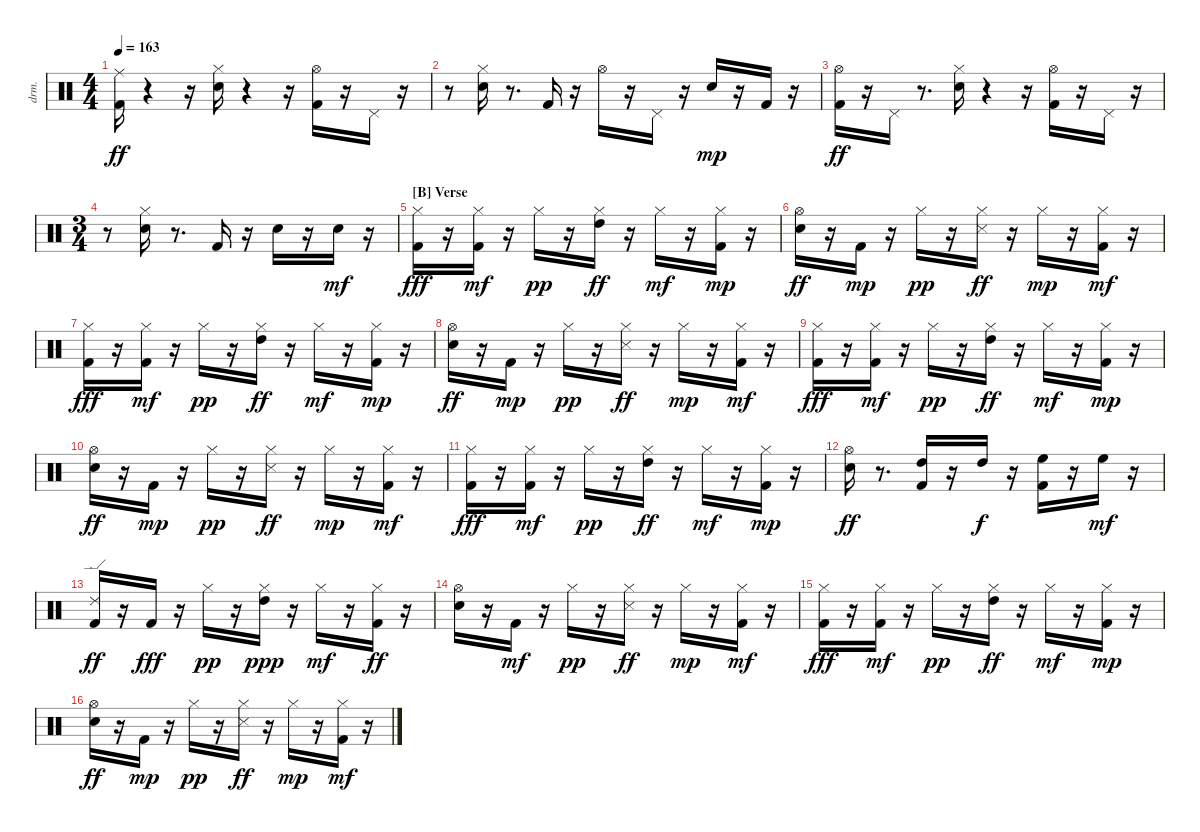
\bracketExtendMode nobrackets
\track ("EZdrummer 3" "drm.") {instrument percussion}
\staff {score}
\articulation defaults
\ts (4 4)
\tempo 163
\clef neutral
\ks aminor
("Kick (hit) 2" "Ride (middle)"{acc #}).16{dy ff beam Down} r.4{beam Down} r.16{beam Down} ("Snare (hit) 2" "Hi-Hat (closed)"{acc #}).16{beam Down} r.4{beam Down} r.16{beam Down} ("Kick (hit) 2" "Hi-Hat (open)"{acc #}).16{beam Down} r.16{beam Down} "Pedal Hi-Hat (hit)"{acc #}.16{beam Down} r.16{beam Down} |
r.8{beam Down} ("Snare (hit) 2" "Hi-Hat (closed)"{acc #}).16{beam Down} r.8{d beam Down} "Kick (hit) 2".16{beam Up} r.16{beam Down} "Hi-Hat (open)"{acc #}.16{beam Down} r.16{beam Down} "Pedal Hi-Hat (hit)"{acc #}.16{beam Down} r.16{beam Down} "Snare (hit) 2".16{dy mp beam Up} r.16{beam Up} "Kick (hit) 2".16{beam Up} r.16{beam Down} |
("Kick (hit) 2" "Hi-Hat (open)"{acc #}).16{dy ff beam Down} r.16{beam Down} "Pedal Hi-Hat (hit)"{acc #}.16{beam Down} r.8{d beam Down} ("Snare (hit) 2" "Hi-Hat (closed)"{acc #}).16{beam Down} r.4{beam Down} r.16{beam Down} ("Kick (hit) 2" "Hi-Hat (open)"{acc #}).16{beam Down} r.16{beam Down} "Pedal Hi-Hat (hit)"{acc #}.16{beam Down} r.16{beam Down} |
\ts (3 4)
r.8{beam Down} ("Snare (hit) 2" "Hi-Hat (closed)"{acc #}).16{beam Down} r.8{d beam Down} "Kick (hit) 2".16{beam Up} r.16{beam Down} "Snare (hit) 2".16{beam Down} r.16{beam Down} "Snare (hit) 2".16{dy mf beam Down} r.16{beam Down} |
\section ("B" "Verse")
("Kick (hit) 2" "Hi-Hat (closed)"{acc #}).16{dy fff beam Down} r.16{beam Down} ("Kick (hit) 2" "Hi-Hat (closed)"{acc #}).16{dy mf beam Down} r.16{beam Down} "Hi-Hat (closed)"{acc #}.16{dy pp beam Down} r.16{beam Down} ("Hi-Hat (closed)"{acc #} "High Tom (hit)").16{dy ff beam Down} r.16{beam Down} "Hi-Hat (closed)"{acc #}.16{dy mf beam Down} r.16{beam Down} ("Kick (hit) 2" "Hi-Hat (closed)"{acc #}).16{dy mp beam Down} r.16{beam Down} |
("Snare (hit) 2" "Hi-Hat (open)"{acc #}).16{dy ff beam Down} r.16{beam Down} "Kick (hit) 2".16{dy mp beam Down} r.16{beam Down} "Hi-Hat (closed)"{acc #}.16{dy pp beam Down} r.16{beam Down} ("Snare (side stick) 3"{acc #} "Hi-Hat (closed)"{acc #}).16{dy ff beam Down} r.16{beam Down} "Hi-Hat (closed)"{acc #}.16{dy mp beam Down} r.16{beam Down} ("Kick (hit) 2" "Hi-Hat (closed)"{acc #}).16{dy mf beam Down} r.16{beam Down} |
("Kick (hit) 2" "Hi-Hat (closed)"{acc #}).16{dy fff beam Down} r.16{beam Down} ("Kick (hit) 2" "Hi-Hat (closed)"{acc #}).16{dy mf beam Down} r.16{beam Down} "Hi-Hat (closed)"{acc #}.16{dy pp beam Down} r.16{beam Down} ("Hi-Hat (closed)"{acc #} "High Tom (hit)").16{dy ff beam Down} r.16{beam Down} "Hi-Hat (closed)"{acc #}.16{dy mf beam Down} r.16{beam Down} ("Kick (hit) 2" "Hi-Hat (closed)"{acc #}).16{dy mp beam Down} r.16{beam Down} |
("Snare (hit) 2" "Hi-Hat (open)"{acc #}).16{dy ff beam Down} r.16{beam Down} "Kick (hit) 2".16{dy mp beam Down} r.16{beam Down} "Hi-Hat (closed)"{acc #}.16{dy pp beam Down} r.16{beam Down} ("Snare (side stick) 3"{acc #} "Hi-Hat (closed)"{acc #}).16{dy ff beam Down} r.16{beam Down} "Hi-Hat (closed)"{acc #}.16{dy mp beam Down} r.16{beam Down} ("Kick (hit) 2" "Hi-Hat (closed)"{acc #}).16{dy mf beam Down} r.16{beam Down} |
("Kick (hit) 2" "Hi-Hat (closed)"{acc #}).16{dy fff beam Down} r.16{beam Down} ("Kick (hit) 2" "Hi-Hat (closed)"{acc #}).16{dy mf beam Down} r.16{beam Down} "Hi-Hat (closed)"{acc #}.16{dy pp beam Down} r.16{beam Down} ("Hi-Hat (closed)"{acc #} "High Tom (hit)").16{dy ff beam Down} r.16{beam Down} "Hi-Hat (closed)"{acc #}.16{dy mf beam Down} r.16{beam Down} ("Kick (hit) 2" "Hi-Hat (closed)"{acc #}).16{dy mp beam Down} r.16{beam Down} |
("Snare (hit) 2" "Hi-Hat (open)"{acc #}).16{dy ff beam Down} r.16{beam Down} "Kick (hit) 2".16{dy mp beam Down} r.16{beam Down} "Hi-Hat (closed)"{acc #}.16{dy pp beam Down} r.16{beam Down} ("Snare (side stick) 3"{acc #} "Hi-Hat (closed)"{acc #}).16{dy ff beam Down} r.16{beam Down} "Hi-Hat (closed)"{acc #}.16{dy mp beam Down} r.16{beam Down} ("Kick (hit) 2" "Hi-Hat (closed)"{acc #}).16{dy mf beam Down} r.16{beam Down} |
("Kick (hit) 2" "Hi-Hat (closed)"{acc #}).16{dy fff beam Down} r.16{beam Down} ("Kick (hit) 2" "Hi-Hat (closed)"{acc #}).16{dy mf beam Down} r.16{beam Down} "Hi-Hat (closed)"{acc #}.16{dy pp beam Down} r.16{beam Down} ("Hi-Hat (closed)"{acc #} "High Tom (hit)").16{dy ff beam Down} r.16{beam Down} "Hi-Hat (closed)"{acc #}.16{dy mf beam Down} r.16{beam Down} ("Kick (hit) 2" "Hi-Hat (closed)"{acc #}).16{dy mp beam Down} r.16{beam Down} |
("Snare (hit) 2" "Hi-Hat (open)"{acc #}).16{dy ff beam Down} r.8{d beam Down} ("Kick (hit) 2" "High Tom (hit)").16{beam Up} r.16{beam Up} "High Tom (hit)".16{dy f beam Up} r.16{beam Down} ("Kick (hit) 2" "High Floor Tom (hit)").16{beam Down} r.16{beam Down} "High Floor Tom (hit)".16{dy mf beam Down} r.16{beam Down} |
("Kick (hit) 2" "Ride (edge) 2").16{dy ff beam Up} r.16{beam Up} "Kick (hit) 2".16{dy fff beam Up} r.16{beam Down} "Hi-Hat (closed)"{acc #}.16{dy pp beam Down} r.16{beam Down} ("Hi-Hat (closed)"{acc #} "High Tom (hit)").16{dy ppp beam Down} r.16{beam Down} "Hi-Hat (closed)"{acc #}.16{dy mf beam Down} r.16{beam Down} ("Kick (hit) 2" "Hi-Hat (closed)"{acc #}).16{dy ff beam Down} r.16{beam Down} |
("Snare (hit) 2" "Hi-Hat (open)"{acc #}).16{beam Down} r.16{beam Down} "Kick (hit) 2".16{dy mf beam Down} r.16{beam Down} "Hi-Hat (closed)"{acc #}.16{dy pp beam Down} r.16{beam Down} ("Snare (side stick) 3"{acc #} "Hi-Hat (closed)"{acc #}).16{dy ff beam Down} r.16{beam Down} "Hi-Hat (closed)"{acc #}.16{dy mp beam Down} r.16{beam Down} ("Kick (hit) 2" "Hi-Hat (closed)"{acc #}).16{dy mf beam Down} r.16{beam Down} |
("Kick (hit) 2" "Hi-Hat (closed)"{acc #}).16{dy fff beam Down} r.16{beam Down} ("Kick (hit) 2" "Hi-Hat (closed)"{acc #}).16{dy mf beam Down} r.16{beam Down} "Hi-Hat (closed)"{acc #}.16{dy pp beam Down} r.16{beam Down} ("Hi-Hat (closed)"{acc #} "High Tom (hit)").16{dy ff beam Down} r.16{beam Down} "Hi-Hat (closed)"{acc #}.16{dy mf beam Down} r.16{beam Down} ("Kick (hit) 2" "Hi-Hat (closed)"{acc #}).16{dy mp beam Down} r.16{beam Down} |
("Snare (hit) 2" "Hi-Hat (open)"{acc #}).16{dy ff beam Down} r.16{beam Down} "Kick (hit) 2".16{dy mp beam Down} r.16{beam Down} "Hi-Hat (closed)"{acc #}.16{dy pp beam Down} r.16{beam Down} ("Snare (side stick) 3"{acc #} "Hi-Hat (closed)"{acc #}).16{dy ff beam Down} r.16{beam Down} "Hi-Hat (closed)"{acc #}.16{dy mp beam Down} r.16{beam Down} ("Kick (hit) 2" "Hi-Hat (closed)"{acc #}).16{dy mf beam Down} r.16{beam Down}
